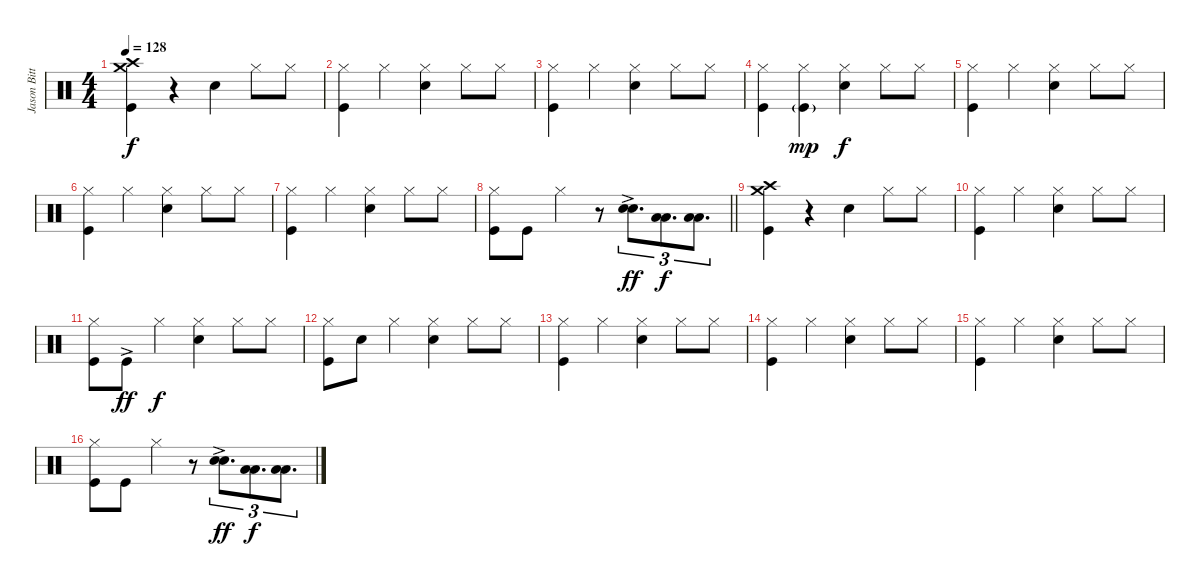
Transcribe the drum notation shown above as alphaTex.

\track ("Jason Bittner" "Jason Bitt") {instrument percussion}
\staff {score}
\articulation defaults
\ts (4 4)
\tempo 128
\clef neutral
\ks c
("Crash medium (hit)" "Crash high (hit)" "Kick (hit)").4{dy f} r.4 "Electric Snare (hit)".4 "Hi-Hat (closed)".8 "Hi-Hat (closed)".8 |
("Hi-Hat (closed)" "Kick (hit)").4 "Hi-Hat (closed)".4 ("Hi-Hat (closed)" "Electric Snare (hit)").4 "Hi-Hat (closed)".8 "Hi-Hat (closed)".8 |
("Hi-Hat (closed)" "Kick (hit)").4 "Hi-Hat (closed)".4 ("Hi-Hat (closed)" "Electric Snare (hit)").4 "Hi-Hat (closed)".8 "Hi-Hat (closed)".8 |
("Hi-Hat (closed)" "Kick (hit)").4 ("Hi-Hat (closed)" "Kick (hit)"{g}).4{dy mp} ("Hi-Hat (closed)" "Electric Snare (hit)").4{dy f} "Hi-Hat (closed)".8 "Hi-Hat (closed)".8 |
("Hi-Hat (closed)" "Kick (hit)").4 "Hi-Hat (closed)".4 ("Hi-Hat (closed)" "Electric Snare (hit)").4 "Hi-Hat (closed)".8 "Hi-Hat (closed)".8 |
("Hi-Hat (closed)" "Kick (hit)").4 "Hi-Hat (closed)".4 ("Hi-Hat (closed)" "Electric Snare (hit)").4 "Hi-Hat (closed)".8 "Hi-Hat (closed)".8 |
("Hi-Hat (closed)" "Kick (hit)").4 "Hi-Hat (closed)".4 ("Hi-Hat (closed)" "Electric Snare (hit)").4 "Hi-Hat (closed)".8 "Hi-Hat (closed)".8 |
\barLineRight lightlight
("Hi-Hat (closed)" "Kick (hit)").8 "Kick (hit)".8 "Hi-Hat (closed)".4 r.8 ("Electric Snare (hit)"{ac} "Electric Snare (hit)"{ac}).8{d tu (3 2) dy ff beam merge} ("Low Tom (hit)" "Low Tom (hit)").8{d tu (3 2) dy f} ("Low Floor Tom (hit)" "Low Floor Tom (hit)").8{d tu (3 2)} |
("Crash medium (hit)" "Crash high (hit)" "Kick (hit)").4 r.4 "Electric Snare (hit)".4 "Hi-Hat (closed)".8 "Hi-Hat (closed)".8 |
("Hi-Hat (closed)" "Kick (hit)").4 "Hi-Hat (closed)".4 ("Hi-Hat (closed)" "Electric Snare (hit)").4 "Hi-Hat (closed)".8 "Hi-Hat (closed)".8 |
("Hi-Hat (closed)" "Kick (hit)").8 "Kick (hit)"{ac}.8{dy ff} "Hi-Hat (closed)".4{dy f} ("Hi-Hat (closed)" "Electric Snare (hit)").4 "Hi-Hat (closed)".8 "Hi-Hat (closed)".8 |
("Hi-Hat (closed)" "Kick (hit)").8 "Electric Snare (hit)".8 "Hi-Hat (closed)".4 ("Hi-Hat (closed)" "Electric Snare (hit)").4 "Hi-Hat (closed)".8 "Hi-Hat (closed)".8 |
("Hi-Hat (closed)" "Kick (hit)").4 "Hi-Hat (closed)".4 ("Hi-Hat (closed)" "Electric Snare (hit)").4 "Hi-Hat (closed)".8 "Hi-Hat (closed)".8 |
("Hi-Hat (closed)" "Kick (hit)").4 "Hi-Hat (closed)".4 ("Hi-Hat (closed)" "Electric Snare (hit)").4 "Hi-Hat (closed)".8 "Hi-Hat (closed)".8 |
("Hi-Hat (closed)" "Kick (hit)").4 "Hi-Hat (closed)".4 ("Hi-Hat (closed)" "Electric Snare (hit)").4 "Hi-Hat (closed)".8 "Hi-Hat (closed)".8 |
("Hi-Hat (closed)" "Kick (hit)").8 "Kick (hit)".8 "Hi-Hat (closed)".4 r.8 ("Electric Snare (hit)"{ac} "Electric Snare (hit)"{ac}).8{d tu (3 2) dy ff beam merge} ("Low Tom (hit)" "Low Tom (hit)").8{d tu (3 2) dy f} ("Low Floor Tom (hit)" "Low Floor Tom (hit)").8{d tu (3 2)}
